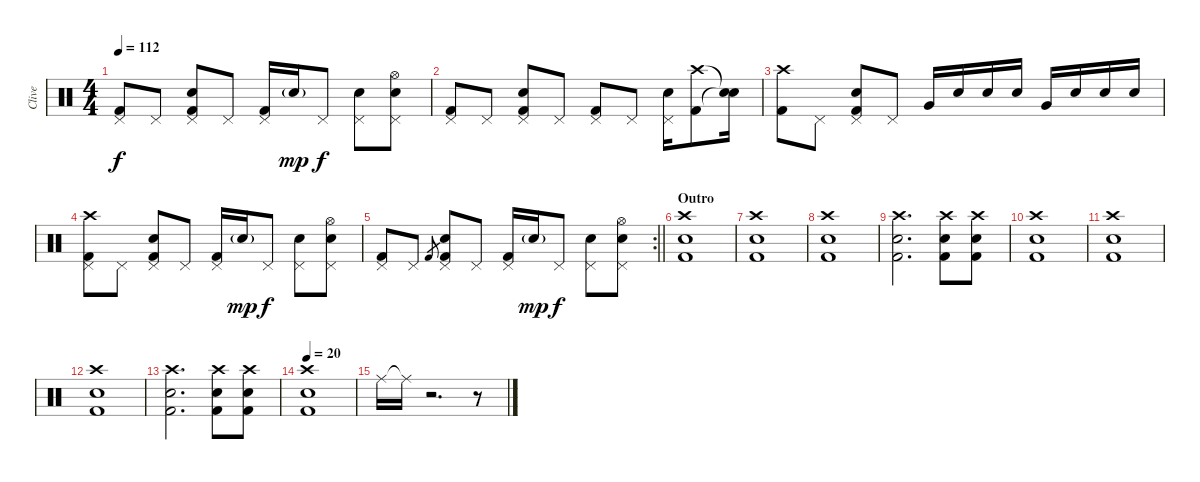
\track ("Clive" "Clive") {instrument percussion}
\staff {score}
\articulation defaults
\ts (4 4)
\tempo 112
\clef neutral
\ks c
("Pedal Hi-Hat (hit)" "Kick (hit) 2").8{dy f} "Pedal Hi-Hat (hit)".8 ("Pedal Hi-Hat (hit)" "Snare (hit) 2" "Kick (hit) 2").8 "Pedal Hi-Hat (hit)".8 ("Pedal Hi-Hat (hit)" "Kick (hit) 2").16 "Snare (hit) 2"{g}.16{dy mp} "Pedal Hi-Hat (hit)".8{dy f} ("Pedal Hi-Hat (hit)" "Snare (hit) 2").8 ("Pedal Hi-Hat (hit)" "Snare (hit) 2" "Hi-Hat (open)").8 |
("Pedal Hi-Hat (hit)" "Kick (hit) 2").8 "Pedal Hi-Hat (hit)".8 ("Pedal Hi-Hat (hit)" "Snare (hit) 2" "Kick (hit) 2").8 "Pedal Hi-Hat (hit)".8 ("Pedal Hi-Hat (hit)" "Kick (hit) 2").8 "Pedal Hi-Hat (hit)".8 ("Pedal Hi-Hat (hit)" "Snare (hit) 2").16 ("Crash high (hit)" "Kick (hit) 2").8 ("Snare (hit)"{t} "Snare (hit)"{t}).16 |
("Crash high (hit)" "Kick (hit) 2").8 "Pedal Hi-Hat (hit)".8 ("Pedal Hi-Hat (hit)" "Kick (hit) 2" "Snare (hit) 2").8 "Pedal Hi-Hat (hit)".8 "Very Low Tom (hit)".16 "Snare (hit) 2".16 "Snare (hit) 2".16 "Snare (hit) 2".16 "Very Low Tom (hit)".16 "Snare (hit) 2".16 "Snare (hit) 2".16 "Snare (hit) 2".16 |
("Pedal Hi-Hat (hit)" "Kick (hit) 2" "Crash high (hit)").8 "Pedal Hi-Hat (hit)".8 ("Pedal Hi-Hat (hit)" "Snare (hit) 2" "Kick (hit) 2").8 "Pedal Hi-Hat (hit)".8 ("Pedal Hi-Hat (hit)" "Kick (hit) 2").16 "Snare (hit) 2"{g}.16{dy mp} "Pedal Hi-Hat (hit)".8{dy f} ("Pedal Hi-Hat (hit)" "Snare (hit) 2").8 ("Pedal Hi-Hat (hit)" "Snare (hit) 2" "Hi-Hat (open)").8 |
\rc 2
\barLineRight lightlight
("Pedal Hi-Hat (hit)" "Kick (hit) 2").8 "Pedal Hi-Hat (hit)".8 "Kick (hit) 2".8{gr} ("Pedal Hi-Hat (hit)" "Snare (hit) 2" "Kick (hit) 2").8 "Pedal Hi-Hat (hit)".8 ("Pedal Hi-Hat (hit)" "Kick (hit) 2").16 "Snare (hit) 2"{g}.16{dy mp} "Pedal Hi-Hat (hit)".8{dy f} ("Pedal Hi-Hat (hit)" "Snare (hit) 2").8 ("Pedal Hi-Hat (hit)" "Snare (hit) 2" "Hi-Hat (open)").8 |
\section ("" "Outro")
("Crash high (hit)" "Kick (hit) 2" "Snare (hit) 2").1 |
("Crash high (hit)" "Kick (hit) 2" "Snare (hit) 2").1 |
("Crash high (hit)" "Kick (hit) 2" "Snare (hit) 2").1 |
("Crash high (hit)" "Kick (hit) 2" "Snare (hit) 2").2{d} ("Crash high (hit)" "Kick (hit) 2" "Snare (hit) 2").8 ("Crash high (hit)" "Kick (hit) 2" "Snare (hit) 2").8 |
("Crash high (hit)" "Kick (hit) 2" "Snare (hit) 2").1 |
("Crash high (hit)" "Kick (hit) 2" "Snare (hit) 2").1 |
("Crash high (hit)" "Kick (hit) 2" "Snare (hit) 2").1 |
("Crash high (hit)" "Kick (hit) 2" "Snare (hit) 2").2{d} ("Crash high (hit)" "Kick (hit) 2" "Snare (hit) 2").8 ("Crash high (hit)" "Kick (hit) 2" "Snare (hit) 2").8 |
\tempo 20
("Crash high (hit)" "Kick (hit) 2" "Snare (hit) 2").1 |
"Ride (middle)".16 "Ride (middle)"{t}.16 r.2{d} r.8
